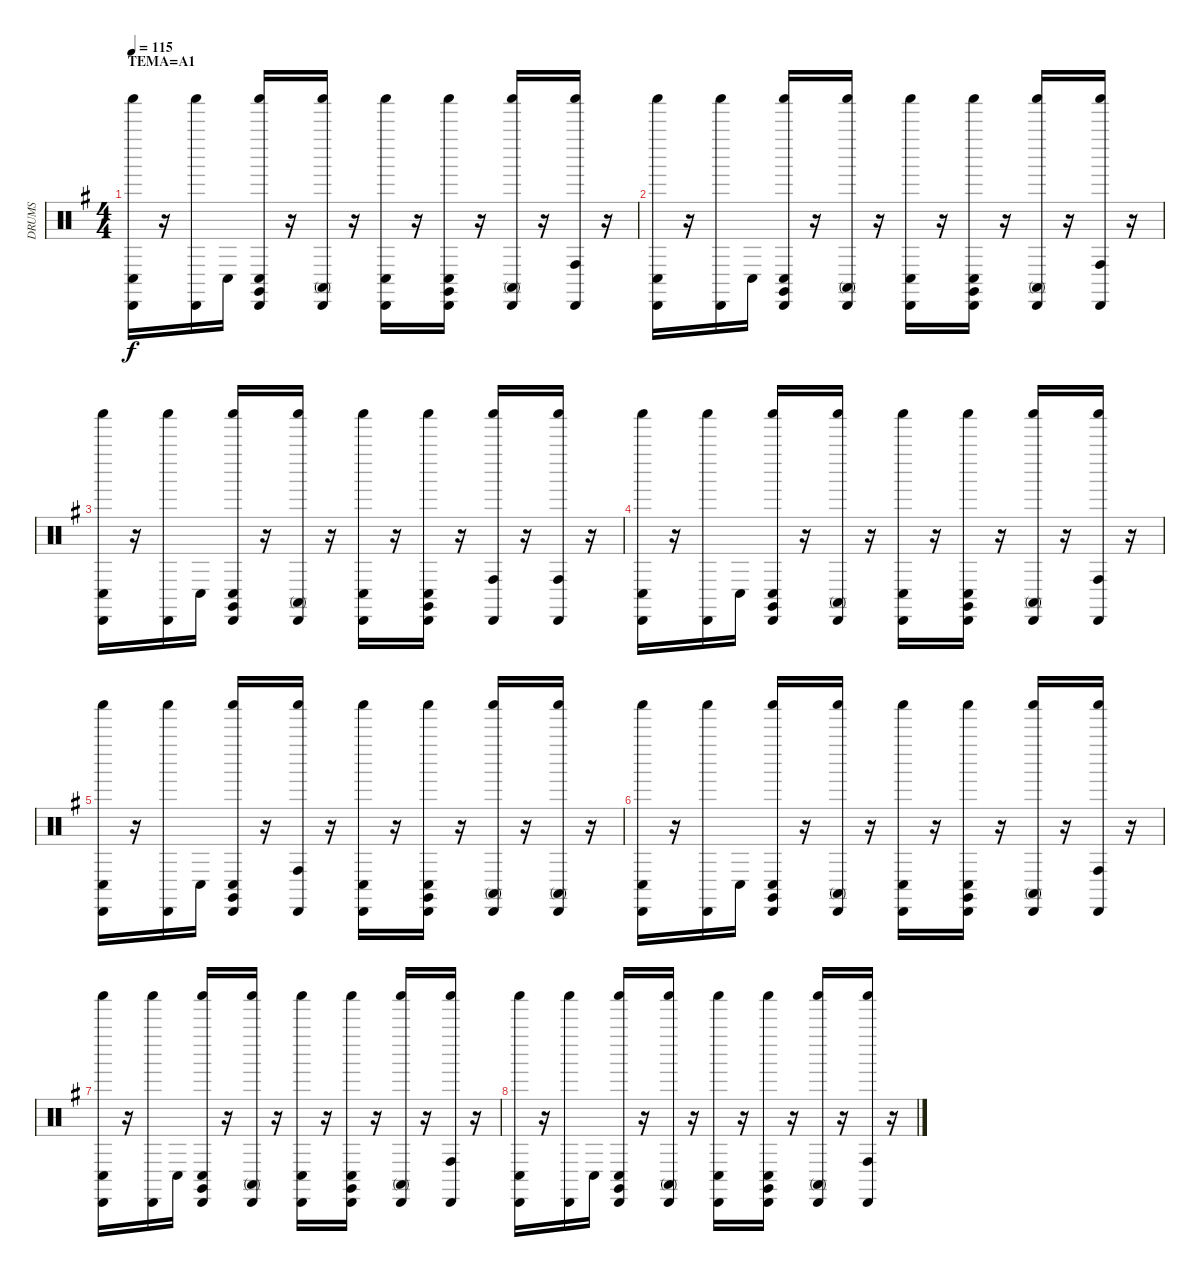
\track ("DRUMS" "DRUMS") {instrument percussion}
\staff {score}
\articulation defaults
\ts (4 4)
\section ("" "TEMA=A1")
\tempo 115
\clef neutral
\ks eminor
("Conga low (hit)" "Cabasa (hit)" "Shaker (hit)").16{dy f} r.16 ("Shaker (hit)" "Cabasa (hit)").16 "Conga low (hit)".16 ("Shaker (hit)" "Cabasa (hit)" "Claves (hit)" "Conga low (hit)").16 r.16 ("Conga high (mute)" "Cabasa (hit)" "Shaker (hit)").16 r.16 ("Conga low (hit)" "Shaker (hit)" "Cabasa (hit)").16 r.16 ("Conga low (hit)" "Cabasa (hit)" "Shaker (hit)" "Claves (hit)").16 r.16 ("Shaker (hit)" "Cabasa (hit)" "Conga high (mute)").16 r.16 ("Shaker (hit)" "Cabasa (hit)" "Conga high (hit)").16 r.16 |
("Cabasa (hit)" "Shaker (hit)" "Conga low (hit)").16 r.16 ("Shaker (hit)" "Cabasa (hit)").16 "Conga low (hit)".16 ("Conga low (hit)" "Cabasa (hit)" "Claves (hit)" "Shaker (hit)").16 r.16 ("Cabasa (hit)" "Conga high (mute)" "Shaker (hit)").16 r.16 ("Shaker (hit)" "Conga low (hit)" "Cabasa (hit)").16 r.16 ("Shaker (hit)" "Claves (hit)" "Conga low (hit)" "Cabasa (hit)").16 r.16 ("Conga high (mute)" "Cabasa (hit)" "Shaker (hit)").16 r.16 ("Shaker (hit)" "Cabasa (hit)" "Conga high (hit)").16 r.16 |
("Shaker (hit)" "Conga low (hit)" "Cabasa (hit)").16 r.16 ("Cabasa (hit)" "Shaker (hit)").16 "Conga low (hit)".16 ("Cabasa (hit)" "Shaker (hit)" "Conga low (hit)" "Claves (hit)").16 r.16 ("Conga high (mute)" "Shaker (hit)" "Cabasa (hit)").16 r.16 ("Conga low (hit)" "Cabasa (hit)" "Shaker (hit)").16 r.16 ("Cabasa (hit)" "Shaker (hit)" "Conga low (hit)" "Claves (hit)").16 r.16 ("Conga high (hit)" "Shaker (hit)" "Cabasa (hit)").16 r.16 ("Shaker (hit)" "Conga high (hit)" "Cabasa (hit)").16 r.16 |
("Conga low (hit)" "Shaker (hit)" "Cabasa (hit)").16 r.16 ("Cabasa (hit)" "Shaker (hit)").16 "Conga low (hit)".16 ("Conga low (hit)" "Cabasa (hit)" "Claves (hit)" "Shaker (hit)").16 r.16 ("Conga high (mute)" "Shaker (hit)" "Cabasa (hit)").16 r.16 ("Shaker (hit)" "Conga low (hit)" "Cabasa (hit)").16 r.16 ("Cabasa (hit)" "Claves (hit)" "Conga low (hit)" "Shaker (hit)").16 r.16 ("Conga high (mute)" "Shaker (hit)" "Cabasa (hit)").16 r.16 ("Shaker (hit)" "Cabasa (hit)" "Conga high (hit)").16 r.16 |
("Conga low (hit)" "Cabasa (hit)" "Shaker (hit)").16 r.16 ("Cabasa (hit)" "Shaker (hit)").16 "Conga low (hit)".16 ("Claves (hit)" "Shaker (hit)" "Cabasa (hit)" "Conga low (hit)").16 r.16 ("Conga high (hit)" "Cabasa (hit)" "Shaker (hit)").16 r.16 ("Cabasa (hit)" "Conga low (hit)" "Shaker (hit)").16 r.16 ("Shaker (hit)" "Conga low (hit)" "Claves (hit)" "Cabasa (hit)").16 r.16 ("Shaker (hit)" "Cabasa (hit)" "Conga high (mute)").16 r.16 ("Conga high (mute)" "Cabasa (hit)" "Shaker (hit)").16 r.16 |
("Conga low (hit)" "Shaker (hit)" "Cabasa (hit)").16 r.16 ("Shaker (hit)" "Cabasa (hit)").16 "Conga low (hit)".16 ("Cabasa (hit)" "Claves (hit)" "Conga low (hit)" "Shaker (hit)").16 r.16 ("Shaker (hit)" "Conga high (mute)" "Cabasa (hit)").16 r.16 ("Conga low (hit)" "Shaker (hit)" "Cabasa (hit)").16 r.16 ("Claves (hit)" "Cabasa (hit)" "Conga low (hit)" "Shaker (hit)").16 r.16 ("Conga high (mute)" "Cabasa (hit)" "Shaker (hit)").16 r.16 ("Cabasa (hit)" "Conga high (hit)" "Shaker (hit)").16 r.16 |
("Shaker (hit)" "Conga low (hit)" "Cabasa (hit)").16 r.16 ("Cabasa (hit)" "Shaker (hit)").16 "Conga low (hit)".16 ("Cabasa (hit)" "Conga low (hit)" "Shaker (hit)" "Claves (hit)").16 r.16 ("Shaker (hit)" "Conga high (mute)" "Cabasa (hit)").16 r.16 ("Shaker (hit)" "Conga low (hit)" "Cabasa (hit)").16 r.16 ("Conga low (hit)" "Cabasa (hit)" "Claves (hit)" "Shaker (hit)").16 r.16 ("Conga high (mute)" "Cabasa (hit)" "Shaker (hit)").16 r.16 ("Cabasa (hit)" "Shaker (hit)" "Conga high (hit)").16 r.16 |
("Shaker (hit)" "Cabasa (hit)" "Conga low (hit)").16 r.16 ("Shaker (hit)" "Cabasa (hit)").16 "Conga low (hit)".16 ("Cabasa (hit)" "Conga low (hit)" "Shaker (hit)" "Claves (hit)").16 r.16 ("Shaker (hit)" "Conga high (mute)" "Cabasa (hit)").16 r.16 ("Cabasa (hit)" "Conga low (hit)" "Shaker (hit)").16 r.16 ("Conga low (hit)" "Claves (hit)" "Shaker (hit)" "Cabasa (hit)").16 r.16 ("Shaker (hit)" "Cabasa (hit)" "Conga high (mute)").16 r.16 ("Shaker (hit)" "Cabasa (hit)" "Conga high (hit)").16 r.16
